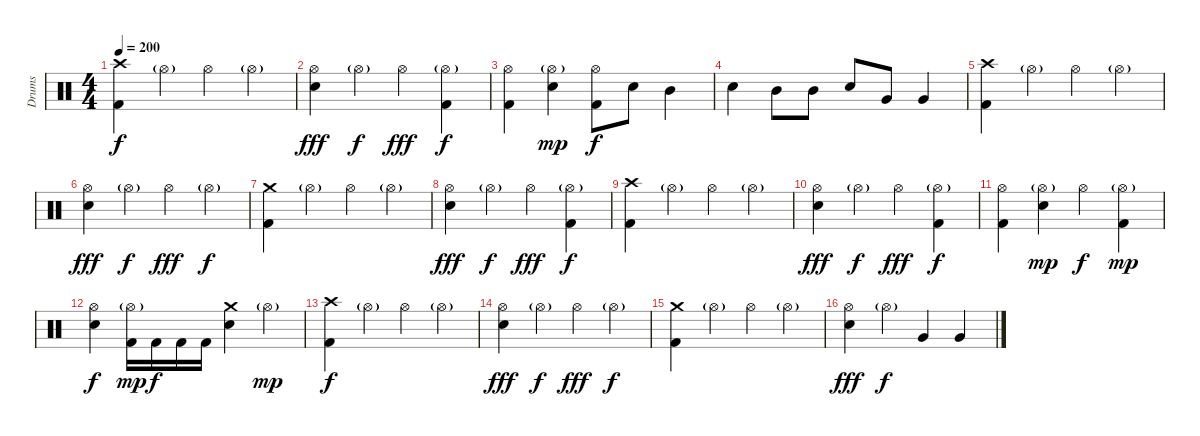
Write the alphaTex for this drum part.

\track ("Drums" "Drums") {instrument percussion}
\staff {score}
\articulation defaults
\ts (4 4)
\tempo 200
\clef neutral
\ks c
("Crash high (hit)" "Kick (hit) 2").4{dy f} "Hi-Hat (open)"{g}.4 "Hi-Hat (open)".4 "Hi-Hat (open)"{g}.4 |
("Hi-Hat (open)" "Electric Snare (hit)").4{dy fff} "Hi-Hat (open)"{g}.4{dy f} "Hi-Hat (open)".4{dy fff} ("Hi-Hat (open)"{g} "Kick (hit) 2").4{dy f} |
("Hi-Hat (open)" "Kick (hit) 2").4 ("Hi-Hat (open)"{g} "Electric Snare (hit)").4{dy mp} ("Hi-Hat (open)" "Kick (hit) 2").8{dy f} "Electric Snare (hit)".8 "Mid Tom (hit)".4 |
"Electric Snare (hit)".4 "Mid Tom (hit)".8 "Mid Tom (hit)".8 "Electric Snare (hit)".8 "Very Low Tom (hit)".8 "Very Low Tom (hit)".4 |
("Crash high (hit)" "Kick (hit) 2").4 "Hi-Hat (open)"{g}.4 "Hi-Hat (open)".4 "Hi-Hat (open)"{g}.4 |
("Hi-Hat (open)" "Electric Snare (hit)").4{dy fff} "Hi-Hat (open)"{g}.4{dy f} "Hi-Hat (open)".4{dy fff} "Hi-Hat (open)"{g}.4{dy f} |
("Crash medium (hit)" "Kick (hit) 2").4 "Hi-Hat (open)"{g}.4 "Hi-Hat (open)".4 "Hi-Hat (open)"{g}.4 |
("Hi-Hat (open)" "Electric Snare (hit)").4{dy fff} "Hi-Hat (open)"{g}.4{dy f} "Hi-Hat (open)".4{dy fff} ("Hi-Hat (open)"{g} "Kick (hit) 2").4{dy f} |
("Crash high (hit)" "Kick (hit) 2").4 "Hi-Hat (open)"{g}.4 "Hi-Hat (open)".4 "Hi-Hat (open)"{g}.4 |
("Hi-Hat (open)" "Electric Snare (hit)").4{dy fff} "Hi-Hat (open)"{g}.4{dy f} "Hi-Hat (open)".4{dy fff} ("Hi-Hat (open)"{g} "Kick (hit) 2").4{dy f} |
("Hi-Hat (open)" "Kick (hit) 2").4 ("Hi-Hat (open)"{g} "Electric Snare (hit)").4{dy mp} "Hi-Hat (open)".4{dy f} ("Hi-Hat (open)"{g} "Kick (hit) 2").4{dy mp} |
("Hi-Hat (open)" "Electric Snare (hit)").4{dy f} ("Hi-Hat (open)"{g} "Kick (hit) 2").16{dy mp} "Kick (hit) 2".16{dy f} "Kick (hit) 2".16 "Kick (hit) 2".16 ("Crash medium (hit)" "Electric Snare (hit)").4 "Hi-Hat (open)"{g}.4{dy mp} |
("Crash high (hit)" "Kick (hit) 2").4{dy f} "Hi-Hat (open)"{g}.4 "Hi-Hat (open)".4 "Hi-Hat (open)"{g}.4 |
("Hi-Hat (open)" "Electric Snare (hit)").4{dy fff} "Hi-Hat (open)"{g}.4{dy f} "Hi-Hat (open)".4{dy fff} "Hi-Hat (open)"{g}.4{dy f} |
("Crash medium (hit)" "Kick (hit) 2").4 "Hi-Hat (open)"{g}.4 "Hi-Hat (open)".4 "Hi-Hat (open)"{g}.4 |
("Hi-Hat (open)" "Electric Snare (hit)").4{dy fff} "Hi-Hat (open)"{g}.4{dy f} "Very Low Tom (hit)".4 "Very Low Tom (hit)".4
